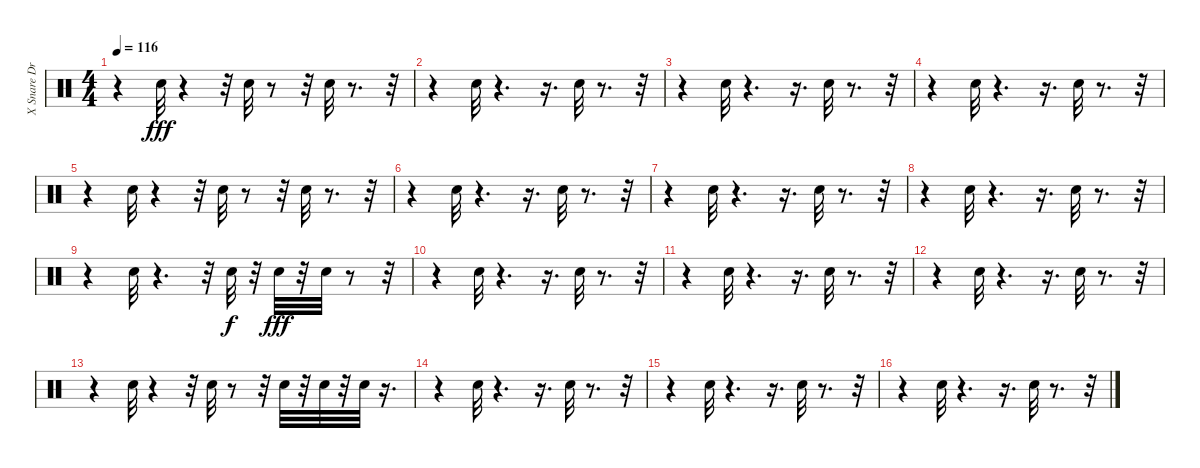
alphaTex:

\track ("X Snare Drum        " "X Snare Dr") {instrument percussion}
\staff {score}
\articulation defaults
\ts (4 4)
\tempo 116
\clef neutral
\ks c
r.4{dy fff} "Snare (hit) 2".32 r.4 r.32 "Snare (hit) 2".32 r.8 r.32 "Snare (hit) 2".32 r.8{d} r.32 |
r.4 "Snare (hit) 2".32 r.4{d} r.16{d} "Snare (hit) 2".32 r.8{d} r.32 |
r.4 "Snare (hit) 2".32 r.4{d} r.16{d} "Snare (hit) 2".32 r.8{d} r.32 |
r.4 "Snare (hit) 2".32 r.4{d} r.16{d} "Snare (hit) 2".32 r.8{d} r.32 |
r.4 "Snare (hit) 2".32 r.4 r.32 "Snare (hit) 2".32 r.8 r.32 "Snare (hit) 2".32 r.8{d} r.32 |
r.4 "Snare (hit) 2".32 r.4{d} r.16{d} "Snare (hit) 2".32 r.8{d} r.32 |
r.4 "Snare (hit) 2".32 r.4{d} r.16{d} "Snare (hit) 2".32 r.8{d} r.32 |
r.4 "Snare (hit) 2".32 r.4{d} r.16{d} "Snare (hit) 2".32 r.8{d} r.32 |
r.4 "Snare (hit) 2".32 r.4{d} r.32 "Snare (hit) 2".32{dy f} r.32 "Snare (hit) 2".32{dy fff} r.32 "Snare (hit) 2".32 r.8 r.32 |
r.4 "Snare (hit) 2".32 r.4{d} r.16{d} "Snare (hit) 2".32 r.8{d} r.32 |
r.4 "Snare (hit) 2".32 r.4{d} r.16{d} "Snare (hit) 2".32 r.8{d} r.32 |
r.4 "Snare (hit) 2".32 r.4{d} r.16{d} "Snare (hit) 2".32 r.8{d} r.32 |
r.4 "Snare (hit) 2".32 r.4 r.32 "Snare (hit) 2".32 r.8 r.32 "Snare (hit) 2".32 r.32 "Snare (hit) 2".32 r.32 "Snare (hit) 2".32 r.16{d} |
r.4 "Snare (hit) 2".32 r.4{d} r.16{d} "Snare (hit) 2".32 r.8{d} r.32 |
r.4 "Snare (hit) 2".32 r.4{d} r.16{d} "Snare (hit) 2".32 r.8{d} r.32 |
r.4 "Snare (hit) 2".32 r.4{d} r.16{d} "Snare (hit) 2".32 r.8{d} r.32
